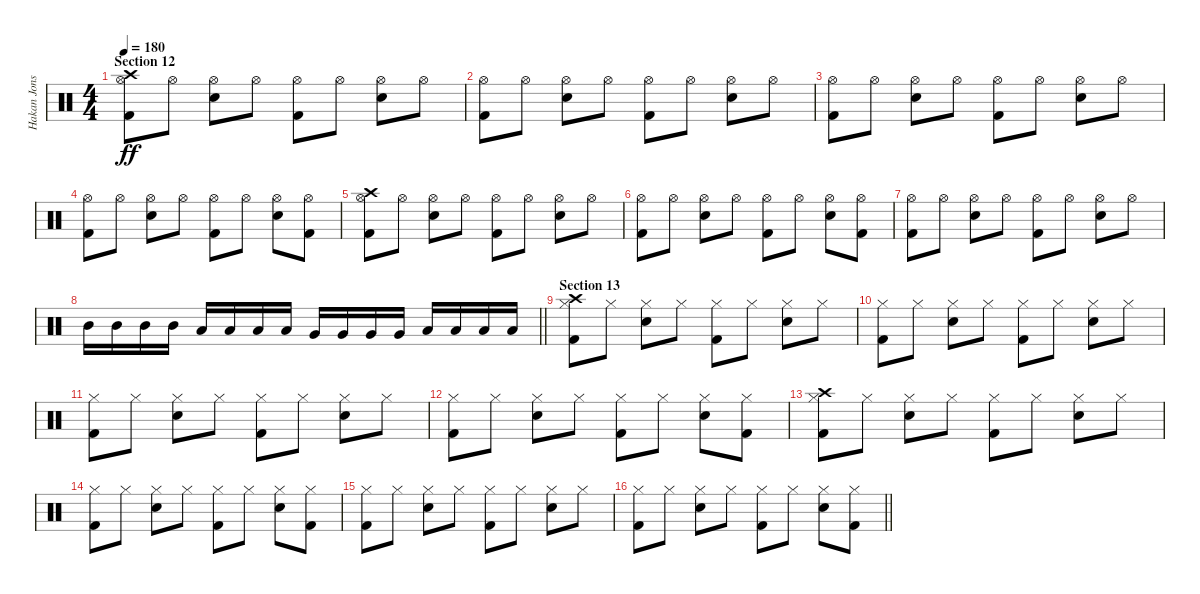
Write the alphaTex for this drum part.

\track ("Hakan Jonsson" "Hakan Jons") {instrument percussion}
\staff {score}
\articulation defaults
\ts (4 4)
\section ("" "Section 12")
\tempo 180
\clef neutral
\ks c
("Crash high (hit)" "Hi-Hat (open)" "Kick (hit) 2").8{dy ff} "Hi-Hat (open)".8 ("Hi-Hat (open)" "Electric Snare (hit)").8 "Hi-Hat (open)".8 ("Hi-Hat (open)" "Kick (hit) 2").8 "Hi-Hat (open)".8 ("Hi-Hat (open)" "Electric Snare (hit)").8 "Hi-Hat (open)".8 |
("Hi-Hat (open)" "Kick (hit) 2").8 "Hi-Hat (open)".8 ("Hi-Hat (open)" "Electric Snare (hit)").8 "Hi-Hat (open)".8 ("Hi-Hat (open)" "Kick (hit) 2").8 "Hi-Hat (open)".8 ("Hi-Hat (open)" "Electric Snare (hit)").8 "Hi-Hat (open)".8 |
("Hi-Hat (open)" "Kick (hit) 2").8 "Hi-Hat (open)".8 ("Hi-Hat (open)" "Electric Snare (hit)").8 "Hi-Hat (open)".8 ("Hi-Hat (open)" "Kick (hit) 2").8 "Hi-Hat (open)".8 ("Hi-Hat (open)" "Electric Snare (hit)").8 "Hi-Hat (open)".8 |
("Hi-Hat (open)" "Kick (hit) 2").8 "Hi-Hat (open)".8 ("Hi-Hat (open)" "Electric Snare (hit)").8 "Hi-Hat (open)".8 ("Hi-Hat (open)" "Kick (hit) 2").8 "Hi-Hat (open)".8 ("Hi-Hat (open)" "Electric Snare (hit)").8 ("Hi-Hat (open)" "Kick (hit) 2").8 |
("Crash high (hit)" "Hi-Hat (open)" "Kick (hit) 2").8 "Hi-Hat (open)".8 ("Hi-Hat (open)" "Electric Snare (hit)").8 "Hi-Hat (open)".8 ("Hi-Hat (open)" "Kick (hit) 2").8 "Hi-Hat (open)".8 ("Hi-Hat (open)" "Electric Snare (hit)").8 "Hi-Hat (open)".8 |
("Hi-Hat (open)" "Kick (hit) 2").8 "Hi-Hat (open)".8 ("Hi-Hat (open)" "Electric Snare (hit)").8 "Hi-Hat (open)".8 ("Hi-Hat (open)" "Kick (hit) 2").8 "Hi-Hat (open)".8 ("Hi-Hat (open)" "Electric Snare (hit)").8 ("Hi-Hat (open)" "Kick (hit) 2").8 |
("Hi-Hat (open)" "Kick (hit) 2").8 "Hi-Hat (open)".8 ("Hi-Hat (open)" "Electric Snare (hit)").8 "Hi-Hat (open)".8 ("Hi-Hat (open)" "Kick (hit) 2").8 "Hi-Hat (open)".8 ("Hi-Hat (open)" "Electric Snare (hit)").8 "Hi-Hat (open)".8 |
\barLineRight lightlight "Mid Tom (hit)".16 "Mid Tom (hit)".16 "Mid Tom (hit)".16 "Mid Tom (hit)".16 "Low Tom (hit)".16 "Low Tom (hit)".16 "Low Tom (hit)".16 "Low Tom (hit)".16 "Very Low Tom (hit)".16 "Very Low Tom (hit)".16 "Very Low Tom (hit)".16 "Very Low Tom (hit)".16 "Low Floor Tom (hit)".16 "Low Floor Tom (hit)".16 "Low Floor Tom (hit)".16 "Low Floor Tom (hit)".16
|
\section ("" "Section 13")
("Crash high (hit)" "Hi-Hat (closed)" "Kick (hit) 2").8 "Hi-Hat (closed)".8 ("Hi-Hat (closed)" "Electric Snare (hit)").8 "Hi-Hat (closed)".8 ("Hi-Hat (closed)" "Kick (hit) 2").8 "Hi-Hat (closed)".8 ("Hi-Hat (closed)" "Electric Snare (hit)").8 "Hi-Hat (closed)".8 |
("Hi-Hat (closed)" "Kick (hit) 2").8 "Hi-Hat (closed)".8 ("Hi-Hat (closed)" "Electric Snare (hit)").8 "Hi-Hat (closed)".8 ("Hi-Hat (closed)" "Kick (hit) 2").8 "Hi-Hat (closed)".8 ("Hi-Hat (closed)" "Electric Snare (hit)").8 "Hi-Hat (closed)".8 |
("Hi-Hat (closed)" "Kick (hit) 2").8 "Hi-Hat (closed)".8 ("Hi-Hat (closed)" "Electric Snare (hit)").8 "Hi-Hat (closed)".8 ("Hi-Hat (closed)" "Kick (hit) 2").8 "Hi-Hat (closed)".8 ("Hi-Hat (closed)" "Electric Snare (hit)").8 "Hi-Hat (closed)".8 |
("Hi-Hat (closed)" "Kick (hit) 2").8 "Hi-Hat (closed)".8 ("Hi-Hat (closed)" "Electric Snare (hit)").8 "Hi-Hat (closed)".8 ("Hi-Hat (closed)" "Kick (hit) 2").8 "Hi-Hat (closed)".8 ("Hi-Hat (closed)" "Electric Snare (hit)").8 ("Hi-Hat (closed)" "Kick (hit) 2").8 |
("Crash high (hit)" "Hi-Hat (closed)" "Kick (hit) 2").8 "Hi-Hat (closed)".8 ("Hi-Hat (closed)" "Electric Snare (hit)").8 "Hi-Hat (closed)".8 ("Hi-Hat (closed)" "Kick (hit) 2").8 "Hi-Hat (closed)".8 ("Hi-Hat (closed)" "Electric Snare (hit)").8 "Hi-Hat (closed)".8 |
("Hi-Hat (closed)" "Kick (hit) 2").8 "Hi-Hat (closed)".8 ("Hi-Hat (closed)" "Electric Snare (hit)").8 "Hi-Hat (closed)".8 ("Hi-Hat (closed)" "Kick (hit) 2").8 "Hi-Hat (closed)".8 ("Hi-Hat (closed)" "Electric Snare (hit)").8 ("Hi-Hat (closed)" "Kick (hit) 2").8 |
("Hi-Hat (closed)" "Kick (hit) 2").8 "Hi-Hat (closed)".8 ("Hi-Hat (closed)" "Electric Snare (hit)").8 "Hi-Hat (closed)".8 ("Hi-Hat (closed)" "Kick (hit) 2").8 "Hi-Hat (closed)".8 ("Hi-Hat (closed)" "Electric Snare (hit)").8 "Hi-Hat (closed)".8 |
\barLineRight lightlight
("Hi-Hat (closed)" "Kick (hit) 2").8 "Hi-Hat (closed)".8 ("Hi-Hat (closed)" "Electric Snare (hit)").8 "Hi-Hat (closed)".8 ("Hi-Hat (closed)" "Kick (hit) 2").8 "Hi-Hat (closed)".8 ("Hi-Hat (closed)" "Electric Snare (hit)").8 ("Hi-Hat (closed)" "Kick (hit) 2").8
